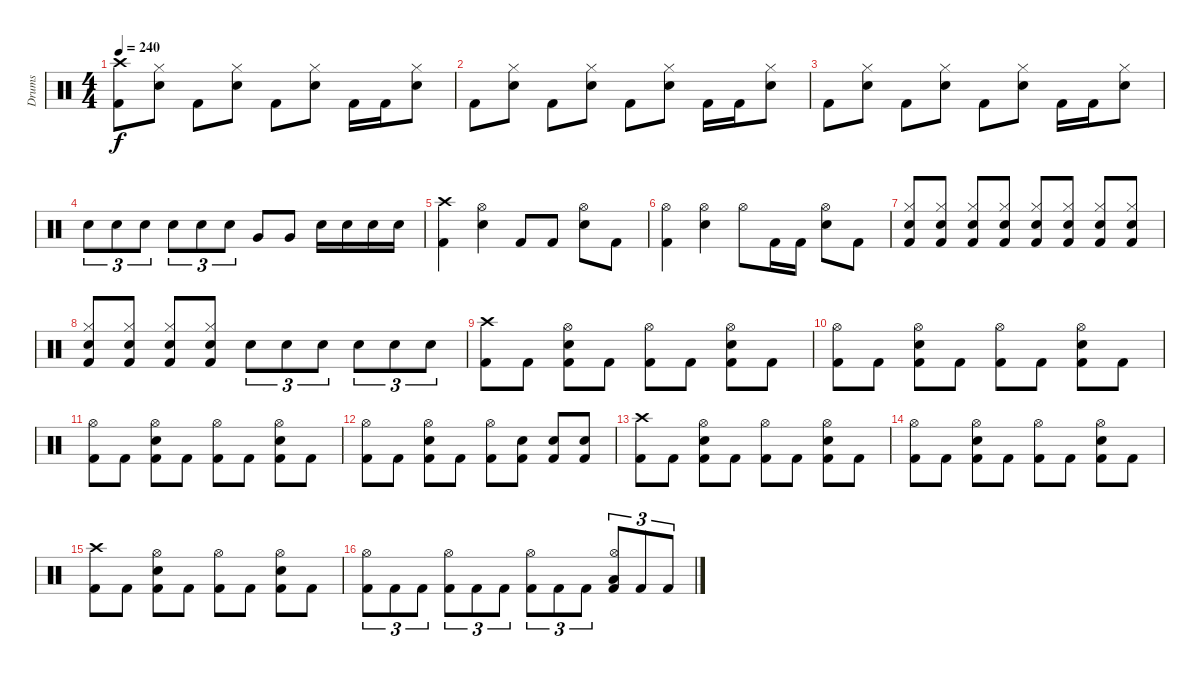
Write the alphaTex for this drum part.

\track ("Drums" "Drums") {instrument percussion}
\staff {score}
\articulation defaults
\ts (4 4)
\tempo 240
\clef neutral
\ks c
("Crash high (hit)" "Kick (hit) 2").8{dy f} ("Hi-Hat (closed)" "Snare (hit) 2").8 "Kick (hit) 2".8 ("Hi-Hat (closed)" "Snare (hit) 2").8 "Kick (hit) 2".8 ("Hi-Hat (closed)" "Snare (hit) 2").8 "Kick (hit) 2".16 "Kick (hit) 2".16 ("Hi-Hat (closed)" "Snare (hit) 2").8 |
"Kick (hit) 2".8 ("Hi-Hat (closed)" "Snare (hit) 2").8 "Kick (hit) 2".8 ("Hi-Hat (closed)" "Snare (hit) 2").8 "Kick (hit) 2".8 ("Hi-Hat (closed)" "Snare (hit) 2").8 "Kick (hit) 2".16 "Kick (hit) 2".16 ("Hi-Hat (closed)" "Snare (hit) 2").8 |
"Kick (hit) 2".8 ("Hi-Hat (closed)" "Snare (hit) 2").8 "Kick (hit) 2".8 ("Hi-Hat (closed)" "Snare (hit) 2").8 "Kick (hit) 2".8 ("Hi-Hat (closed)" "Snare (hit) 2").8 "Kick (hit) 2".16 "Kick (hit) 2".16 ("Hi-Hat (closed)" "Snare (hit) 2").8 |
"Snare (hit) 2".8{tu (3 2)} "Snare (hit) 2".8{tu (3 2)} "Snare (hit) 2".8{tu (3 2)} "Snare (hit) 2".8{tu (3 2)} "Snare (hit) 2".8{tu (3 2)} "Snare (hit) 2".8{tu (3 2)} "Very Low Tom (hit)".8 "Very Low Tom (hit)".8 "Snare (hit) 2".16 "Snare (hit) 2".16 "Snare (hit) 2".16 "Snare (hit) 2".16 |
("Crash high (hit)" "Kick (hit) 2").4 ("Hi-Hat (open)" "Snare (hit) 2").4 "Kick (hit) 2".8 "Kick (hit) 2".8 ("Hi-Hat (open)" "Snare (hit) 2").8 "Kick (hit) 2".8 |
("Hi-Hat (open)" "Kick (hit) 2").4 ("Hi-Hat (open)" "Snare (hit) 2").4 "Hi-Hat (open)".8 "Kick (hit) 2".16 "Kick (hit) 2".16 ("Hi-Hat (open)" "Snare (hit) 2").8 "Kick (hit) 2".8 |
("Hi-Hat (closed)" "Snare (hit) 2" "Kick (hit) 2").8 ("Hi-Hat (closed)" "Snare (hit) 2" "Kick (hit) 2").8 ("Hi-Hat (closed)" "Snare (hit) 2" "Kick (hit) 2").8 ("Hi-Hat (closed)" "Snare (hit) 2" "Kick (hit) 2").8 ("Hi-Hat (closed)" "Snare (hit) 2" "Kick (hit) 2").8 ("Hi-Hat (closed)" "Snare (hit) 2" "Kick (hit) 2").8 ("Hi-Hat (closed)" "Snare (hit) 2" "Kick (hit) 2").8 ("Hi-Hat (closed)" "Snare (hit) 2" "Kick (hit) 2").8 |
("Hi-Hat (closed)" "Snare (hit) 2" "Kick (hit) 2").8 ("Hi-Hat (closed)" "Snare (hit) 2" "Kick (hit) 2").8 ("Hi-Hat (closed)" "Snare (hit) 2" "Kick (hit) 2").8 ("Hi-Hat (closed)" "Snare (hit) 2" "Kick (hit) 2").8 "Snare (hit) 2".8{tu (3 2)} "Snare (hit) 2".8{tu (3 2)} "Snare (hit) 2".8{tu (3 2)} "Snare (hit) 2".8{tu (3 2)} "Snare (hit) 2".8{tu (3 2)} "Snare (hit) 2".8{tu (3 2)} |
("Crash high (hit)" "Kick (hit) 2").8 "Kick (hit) 2".8 ("Hi-Hat (open)" "Snare (hit) 2" "Kick (hit) 2").8 "Kick (hit) 2".8 ("Hi-Hat (open)" "Kick (hit) 2").8 "Kick (hit) 2".8 ("Hi-Hat (open)" "Snare (hit) 2" "Kick (hit) 2").8 "Kick (hit) 2".8 |
("Hi-Hat (open)" "Kick (hit) 2").8 "Kick (hit) 2".8 ("Hi-Hat (open)" "Snare (hit) 2" "Kick (hit) 2").8 "Kick (hit) 2".8 ("Hi-Hat (open)" "Kick (hit) 2").8 "Kick (hit) 2".8 ("Hi-Hat (open)" "Snare (hit) 2" "Kick (hit) 2").8 "Kick (hit) 2".8 |
("Hi-Hat (open)" "Kick (hit) 2").8 "Kick (hit) 2".8 ("Hi-Hat (open)" "Snare (hit) 2" "Kick (hit) 2").8 "Kick (hit) 2".8 ("Hi-Hat (open)" "Kick (hit) 2").8 "Kick (hit) 2".8 ("Hi-Hat (open)" "Snare (hit) 2" "Kick (hit) 2").8 "Kick (hit) 2".8 |
("Hi-Hat (open)" "Kick (hit) 2").8 "Kick (hit) 2".8 ("Hi-Hat (open)" "Snare (hit) 2" "Kick (hit) 2").8 "Kick (hit) 2".8 ("Hi-Hat (open)" "Kick (hit) 2").8 ("Snare (hit) 2" "Kick (hit) 2").8 ("Snare (hit) 2" "Kick (hit) 2").8 ("Snare (hit) 2" "Kick (hit) 2").8 |
("Crash high (hit)" "Kick (hit) 2").8 "Kick (hit) 2".8 ("Hi-Hat (open)" "Snare (hit) 2" "Kick (hit) 2").8 "Kick (hit) 2".8 ("Hi-Hat (open)" "Kick (hit) 2").8 "Kick (hit) 2".8 ("Hi-Hat (open)" "Snare (hit) 2" "Kick (hit) 2").8 "Kick (hit) 2".8 |
("Hi-Hat (open)" "Kick (hit) 2").8 "Kick (hit) 2".8 ("Hi-Hat (open)" "Snare (hit) 2" "Kick (hit) 2").8 "Kick (hit) 2".8 ("Hi-Hat (open)" "Kick (hit) 2").8 "Kick (hit) 2".8 ("Hi-Hat (open)" "Snare (hit) 2" "Kick (hit) 2").8 "Kick (hit) 2".8 |
("Crash high (hit)" "Kick (hit) 2").8 "Kick (hit) 2".8 ("Hi-Hat (open)" "Snare (hit) 2" "Kick (hit) 2").8 "Kick (hit) 2".8 ("Hi-Hat (open)" "Kick (hit) 2").8 "Kick (hit) 2".8 ("Hi-Hat (open)" "Snare (hit) 2" "Kick (hit) 2").8 "Kick (hit) 2".8 |
("Hi-Hat (open)" "Kick (hit) 2").8{tu (3 2)} "Kick (hit) 2".8{tu (3 2)} "Kick (hit) 2".8{tu (3 2)} ("Hi-Hat (open)" "Kick (hit) 2").8{tu (3 2)} "Kick (hit) 2".8{tu (3 2)} "Kick (hit) 2".8{tu (3 2)} ("Hi-Hat (open)" "Kick (hit) 2").8{tu (3 2)} "Kick (hit) 2".8{tu (3 2)} "Kick (hit) 2".8{tu (3 2)} ("Hi-Hat (open)" "Low Floor Tom (hit)" "Kick (hit) 2").8{tu (3 2)} "Kick (hit) 2".8{tu (3 2)} "Kick (hit) 2".8{tu (3 2)}
